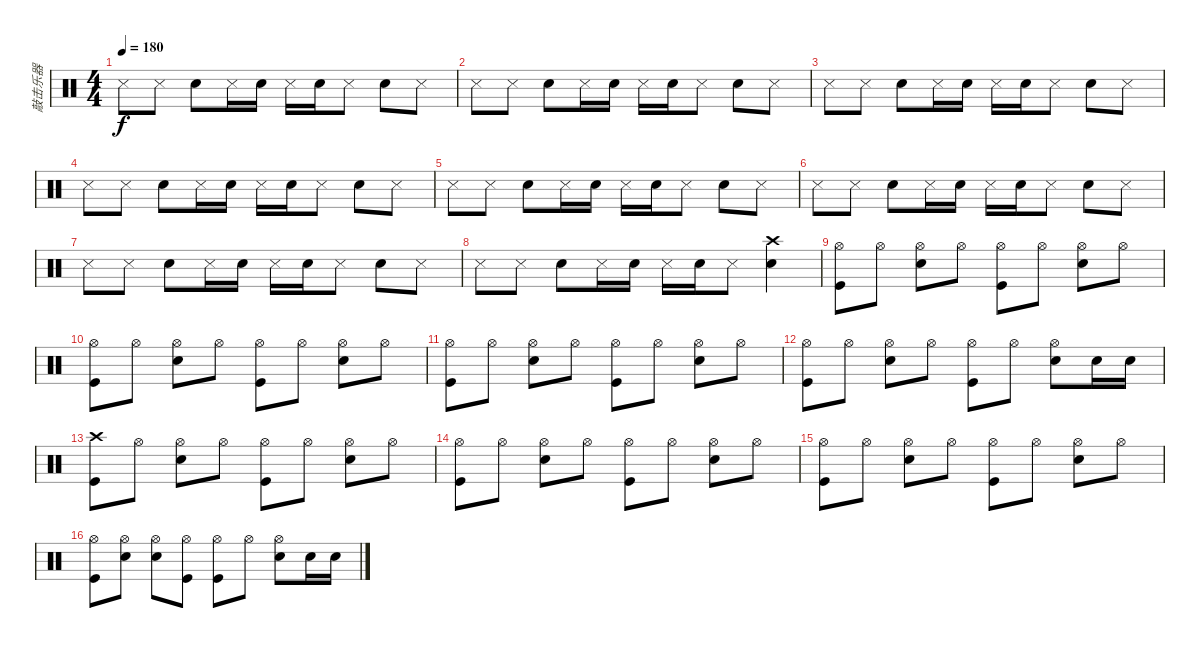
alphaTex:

\track ("敲击乐器" "敲击乐器") {instrument percussion}
\staff {score}
\articulation defaults
\ts (4 4)
\tempo 180
\clef neutral
\ks c "Snare (side stick) 3".8{dy f volume 10} "Snare (side stick) 3".8 "Electric Snare (hit)".8 "Snare (side stick) 3".16 "Electric Snare (hit)".16 "Snare (side stick) 3".16 "Electric Snare (hit)".16 "Snare (side stick) 3".8 "Electric Snare (hit)".8 "Snare (side stick) 3".8
|
"Snare (side stick) 3".8 "Snare (side stick) 3".8 "Electric Snare (hit)".8 "Snare (side stick) 3".16 "Electric Snare (hit)".16 "Snare (side stick) 3".16 "Electric Snare (hit)".16 "Snare (side stick) 3".8 "Electric Snare (hit)".8 "Snare (side stick) 3".8 |
"Snare (side stick) 3".8 "Snare (side stick) 3".8 "Electric Snare (hit)".8 "Snare (side stick) 3".16 "Electric Snare (hit)".16 "Snare (side stick) 3".16 "Electric Snare (hit)".16 "Snare (side stick) 3".8 "Electric Snare (hit)".8 "Snare (side stick) 3".8 |
"Snare (side stick) 3".8 "Snare (side stick) 3".8 "Electric Snare (hit)".8 "Snare (side stick) 3".16 "Electric Snare (hit)".16 "Snare (side stick) 3".16 "Electric Snare (hit)".16 "Snare (side stick) 3".8 "Electric Snare (hit)".8 "Snare (side stick) 3".8 |
"Snare (side stick) 3".8 "Snare (side stick) 3".8 "Electric Snare (hit)".8 "Snare (side stick) 3".16 "Electric Snare (hit)".16 "Snare (side stick) 3".16 "Electric Snare (hit)".16 "Snare (side stick) 3".8 "Electric Snare (hit)".8 "Snare (side stick) 3".8 |
"Snare (side stick) 3".8 "Snare (side stick) 3".8 "Electric Snare (hit)".8 "Snare (side stick) 3".16 "Electric Snare (hit)".16 "Snare (side stick) 3".16 "Electric Snare (hit)".16 "Snare (side stick) 3".8 "Electric Snare (hit)".8 "Snare (side stick) 3".8 |
"Snare (side stick) 3".8 "Snare (side stick) 3".8 "Electric Snare (hit)".8 "Snare (side stick) 3".16 "Electric Snare (hit)".16 "Snare (side stick) 3".16 "Electric Snare (hit)".16 "Snare (side stick) 3".8 "Electric Snare (hit)".8 "Snare (side stick) 3".8 |
"Snare (side stick) 3".8 "Snare (side stick) 3".8 "Electric Snare (hit)".8 "Snare (side stick) 3".16 "Electric Snare (hit)".16 "Snare (side stick) 3".16 "Electric Snare (hit)".16 "Snare (side stick) 3".8 ("Crash high (hit)" "Snare (hit) 2").4{volume 16} |
("Hi-Hat (open)" "Kick (hit)").8 "Hi-Hat (open)".8 ("Hi-Hat (open)" "Snare (hit) 2").8 "Hi-Hat (open)".8 ("Hi-Hat (open)" "Kick (hit)").8 "Hi-Hat (open)".8 ("Hi-Hat (open)" "Snare (hit) 2").8 "Hi-Hat (open)".8 |
("Hi-Hat (open)" "Kick (hit)").8 "Hi-Hat (open)".8 ("Hi-Hat (open)" "Snare (hit) 2").8 "Hi-Hat (open)".8 ("Hi-Hat (open)" "Kick (hit)").8 "Hi-Hat (open)".8 ("Hi-Hat (open)" "Snare (hit) 2").8 "Hi-Hat (open)".8 |
("Hi-Hat (open)" "Kick (hit)").8 "Hi-Hat (open)".8 ("Hi-Hat (open)" "Snare (hit) 2").8 "Hi-Hat (open)".8 ("Hi-Hat (open)" "Kick (hit)").8 "Hi-Hat (open)".8 ("Hi-Hat (open)" "Snare (hit) 2").8 "Hi-Hat (open)".8 |
("Hi-Hat (open)" "Kick (hit)").8 "Hi-Hat (open)".8 ("Hi-Hat (open)" "Snare (hit) 2").8 "Hi-Hat (open)".8 ("Hi-Hat (open)" "Kick (hit)").8 "Hi-Hat (open)".8 ("Hi-Hat (open)" "Snare (hit) 2").8 "Snare (hit) 2".16 "Snare (hit) 2".16 |
("Crash high (hit)" "Kick (hit)").8 "Hi-Hat (open)".8 ("Hi-Hat (open)" "Snare (hit) 2").8 "Hi-Hat (open)".8 ("Hi-Hat (open)" "Kick (hit)").8 "Hi-Hat (open)".8 ("Hi-Hat (open)" "Snare (hit) 2").8 "Hi-Hat (open)".8 |
("Hi-Hat (open)" "Kick (hit)").8 "Hi-Hat (open)".8 ("Hi-Hat (open)" "Snare (hit) 2").8 "Hi-Hat (open)".8 ("Hi-Hat (open)" "Kick (hit)").8 "Hi-Hat (open)".8 ("Hi-Hat (open)" "Snare (hit) 2").8 "Hi-Hat (open)".8 |
("Hi-Hat (open)" "Kick (hit)").8 "Hi-Hat (open)".8 ("Hi-Hat (open)" "Snare (hit) 2").8 "Hi-Hat (open)".8 ("Hi-Hat (open)" "Kick (hit)").8 "Hi-Hat (open)".8 ("Hi-Hat (open)" "Snare (hit) 2").8 "Hi-Hat (open)".8 |
("Hi-Hat (open)" "Kick (hit)").8 ("Hi-Hat (open)" "Snare (hit) 2").8 ("Hi-Hat (open)" "Snare (hit) 2").8 ("Hi-Hat (open)" "Kick (hit)").8 ("Hi-Hat (open)" "Kick (hit)").8 "Hi-Hat (open)".8 ("Hi-Hat (open)" "Snare (hit) 2").8 "Snare (hit) 2".16 "Snare (hit) 2".16
